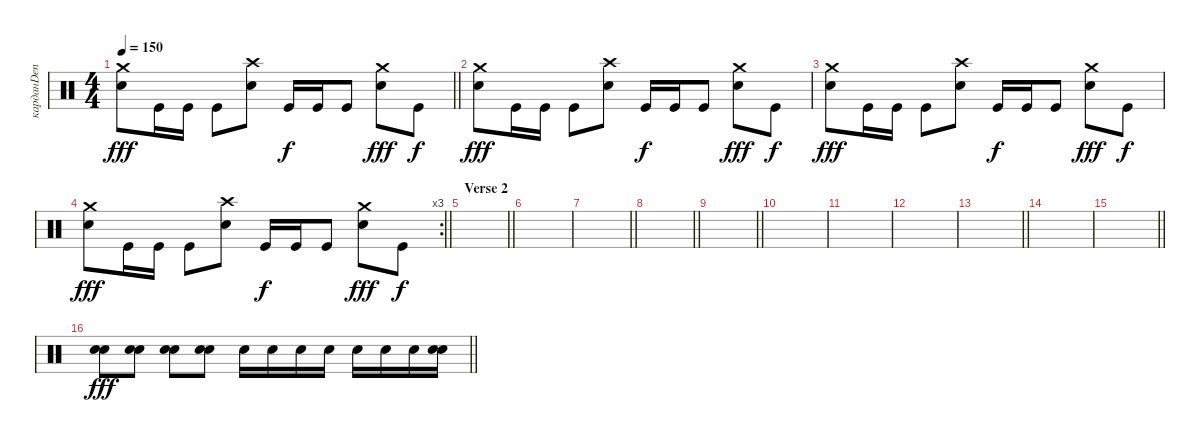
\track ("карданDen" "карданDen") {instrument percussion}
\staff {score}
\articulation defaults
\ts (4 4)
\tempo 150
\clef neutral
\barLineRight lightlight
\ks c
("Crash medium (hit)" "Electric Snare (hit)").8{dy fff} "Kick (hit)".16 "Kick (hit)".16 "Kick (hit)".8 ("Crash high (hit)" "Electric Snare (hit)").8 "Kick (hit)".16{dy f} "Kick (hit)".16 "Kick (hit)".8 ("Crash medium (hit)" "Electric Snare (hit)").8{dy fff} "Kick (hit)".8{dy f} |
("Crash medium (hit)" "Electric Snare (hit)").8{dy fff} "Kick (hit)".16 "Kick (hit)".16 "Kick (hit)".8 ("Crash high (hit)" "Electric Snare (hit)").8 "Kick (hit)".16{dy f} "Kick (hit)".16 "Kick (hit)".8 ("Crash medium (hit)" "Electric Snare (hit)").8{dy fff} "Kick (hit)".8{dy f} |
("Crash medium (hit)" "Electric Snare (hit)").8{dy fff} "Kick (hit)".16 "Kick (hit)".16 "Kick (hit)".8 ("Crash high (hit)" "Electric Snare (hit)").8 "Kick (hit)".16{dy f} "Kick (hit)".16 "Kick (hit)".8 ("Crash medium (hit)" "Electric Snare (hit)").8{dy fff} "Kick (hit)".8{dy f} |
\rc 3
\barLineRight lightlight
("Crash medium (hit)" "Electric Snare (hit)").8{dy fff} "Kick (hit)".16 "Kick (hit)".16 "Kick (hit)".8 ("Crash high (hit)" "Electric Snare (hit)").8 "Kick (hit)".16{dy f} "Kick (hit)".16 "Kick (hit)".8 ("Crash medium (hit)" "Electric Snare (hit)").8{dy fff} "Kick (hit)".8{dy f} |
\section ("" "Verse 2")
\barLineRight lightlight
|
|
\barLineRight lightlight
|
\barLineRight lightlight
|
\barLineRight lightlight
|
|
|
|
\barLineRight lightlight
|
|
\barLineRight lightlight
|
\barLineRight lightlight
("Electric Snare (hit)" "Electric Snare (hit)").8{dy fff} ("Electric Snare (hit)" "Electric Snare (hit)").8 ("Electric Snare (hit)" "Electric Snare (hit)").8 ("Electric Snare (hit)" "Electric Snare (hit)").8 "Electric Snare (hit)".16 "Electric Snare (hit)".16 "Electric Snare (hit)".16 "Electric Snare (hit)".16 "Electric Snare (hit)".16 "Electric Snare (hit)".16 "Electric Snare (hit)".16 ("Electric Snare (hit)" "Electric Snare (hit)").16
